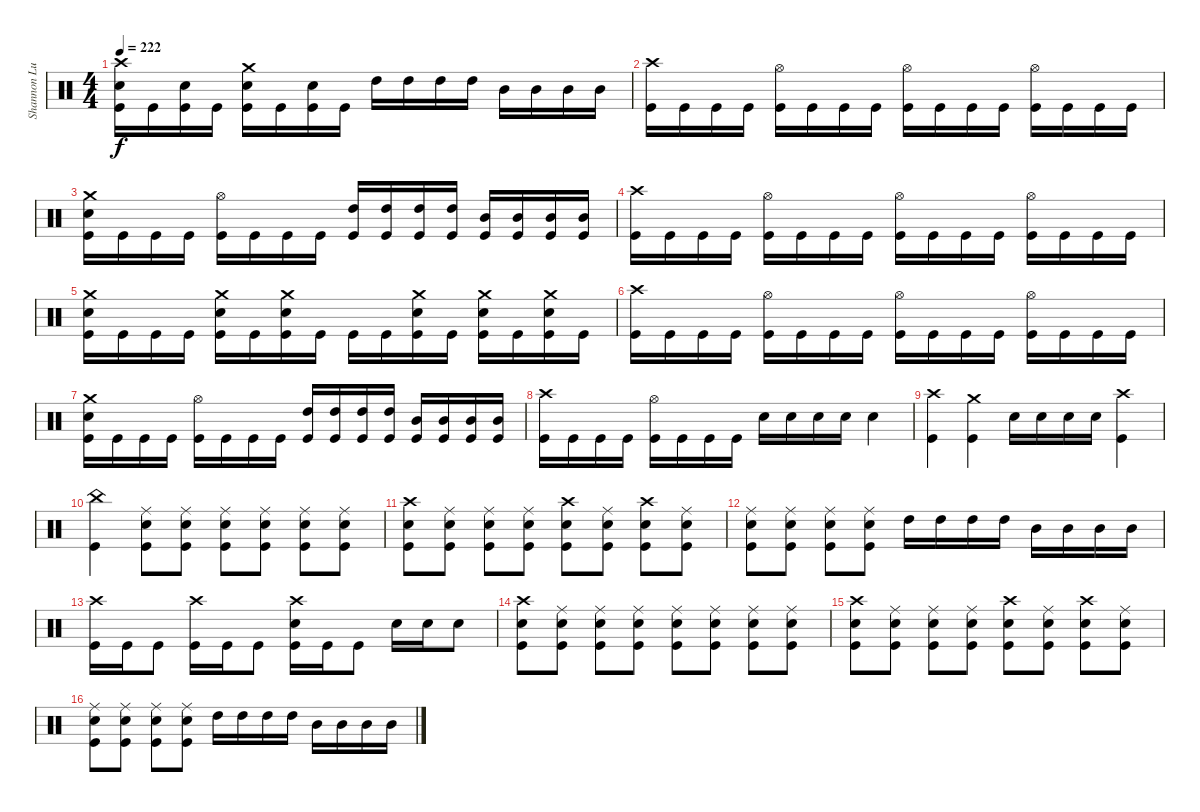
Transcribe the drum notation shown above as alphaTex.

\track ("Shannon Lucas" "Shannon Lu") {instrument percussion}
\staff {score}
\articulation defaults
\ts (4 4)
\tempo 222
\clef neutral
\ks c
("Crash high (hit)" "Snare (hit) 2" "Kick (hit)").16{dy f} "Kick (hit)".16 ("Snare (hit) 2" "Kick (hit)").16 "Kick (hit)".16 ("Crash medium (hit)" "Snare (hit) 2" "Kick (hit)").16 "Kick (hit)".16 ("Snare (hit) 2" "Kick (hit)").16 "Kick (hit)".16 "High Tom (hit)".16 "High Tom (hit)".16 "High Tom (hit)".16 "High Tom (hit)".16 "Mid Tom (hit)".16 "Mid Tom (hit)".16 "Mid Tom (hit)".16 "Mid Tom (hit)".16 |
("Crash high (hit)" "Kick (hit)").16 "Kick (hit)".16 "Kick (hit)".16 "Kick (hit)".16 ("Hi-Hat (open)" "Kick (hit)").16 "Kick (hit)".16 "Kick (hit)".16 "Kick (hit)".16 ("Hi-Hat (open)" "Kick (hit)").16 "Kick (hit)".16 "Kick (hit)".16 "Kick (hit)".16 ("Hi-Hat (open)" "Kick (hit)").16 "Kick (hit)".16 "Kick (hit)".16 "Kick (hit)".16 |
("Crash medium (hit)" "Snare (hit) 2" "Kick (hit)").16 "Kick (hit)".16 "Kick (hit)".16 "Kick (hit)".16 ("Hi-Hat (open)" "Kick (hit)").16 "Kick (hit)".16 "Kick (hit)".16 "Kick (hit)".16 ("High Tom (hit)" "Kick (hit)").16 ("High Tom (hit)" "Kick (hit)").16 ("High Tom (hit)" "Kick (hit)").16 ("High Tom (hit)" "Kick (hit)").16 ("Mid Tom (hit)" "Kick (hit)").16 ("Mid Tom (hit)" "Kick (hit)").16 ("Mid Tom (hit)" "Kick (hit)").16 ("Mid Tom (hit)" "Kick (hit)").16 |
("Crash high (hit)" "Kick (hit)").16 "Kick (hit)".16 "Kick (hit)".16 "Kick (hit)".16 ("Hi-Hat (open)" "Kick (hit)").16 "Kick (hit)".16 "Kick (hit)".16 "Kick (hit)".16 ("Hi-Hat (open)" "Kick (hit)").16 "Kick (hit)".16 "Kick (hit)".16 "Kick (hit)".16 ("Hi-Hat (open)" "Kick (hit)").16 "Kick (hit)".16 "Kick (hit)".16 "Kick (hit)".16 |
("Crash medium (hit)" "Snare (hit) 2" "Kick (hit)").16 "Kick (hit)".16 "Kick (hit)".16 "Kick (hit)".16 ("Crash medium (hit)" "Snare (hit) 2" "Kick (hit)").16 "Kick (hit)".16 ("Crash medium (hit)" "Snare (hit) 2" "Kick (hit)").16 "Kick (hit)".16 "Kick (hit)".16 "Kick (hit)".16 ("Crash medium (hit)" "Snare (hit) 2" "Kick (hit)").16 "Kick (hit)".16 ("Crash medium (hit)" "Snare (hit) 2" "Kick (hit)").16 "Kick (hit)".16 ("Crash medium (hit)" "Snare (hit) 2" "Kick (hit)").16 "Kick (hit)".16 |
("Crash high (hit)" "Kick (hit)").16 "Kick (hit)".16 "Kick (hit)".16 "Kick (hit)".16 ("Hi-Hat (open)" "Kick (hit)").16 "Kick (hit)".16 "Kick (hit)".16 "Kick (hit)".16 ("Hi-Hat (open)" "Kick (hit)").16 "Kick (hit)".16 "Kick (hit)".16 "Kick (hit)".16 ("Hi-Hat (open)" "Kick (hit)").16 "Kick (hit)".16 "Kick (hit)".16 "Kick (hit)".16 |
("Crash medium (hit)" "Snare (hit) 2" "Kick (hit)").16 "Kick (hit)".16 "Kick (hit)".16 "Kick (hit)".16 ("Hi-Hat (open)" "Kick (hit)").16 "Kick (hit)".16 "Kick (hit)".16 "Kick (hit)".16 ("High Tom (hit)" "Kick (hit)").16 ("High Tom (hit)" "Kick (hit)").16 ("High Tom (hit)" "Kick (hit)").16 ("High Tom (hit)" "Kick (hit)").16 ("Mid Tom (hit)" "Kick (hit)").16 ("Mid Tom (hit)" "Kick (hit)").16 ("Mid Tom (hit)" "Kick (hit)").16 ("Mid Tom (hit)" "Kick (hit)").16 |
("Crash high (hit)" "Kick (hit)").16 "Kick (hit)".16 "Kick (hit)".16 "Kick (hit)".16 ("Hi-Hat (open)" "Kick (hit)").16 "Kick (hit)".16 "Kick (hit)".16 "Kick (hit)".16 "Snare (hit) 2".16 "Snare (hit) 2".16 "Snare (hit) 2".16 "Snare (hit) 2".16 "Snare (hit) 2".4 |
("Crash high (hit)" "Kick (hit)").4 ("Crash medium (hit)" "Kick (hit)").4 "Snare (hit) 2".16 "Snare (hit) 2".16 "Snare (hit) 2".16 "Snare (hit) 2".16 ("Crash high (hit)" "Kick (hit)").4 |
("China (hit)" "Kick (hit)").4 ("Ride (middle)" "Snare (hit) 2" "Kick (hit)").8 ("Ride (middle)" "Snare (hit) 2" "Kick (hit)").8 ("Ride (middle)" "Snare (hit) 2" "Kick (hit)").8 ("Ride (middle)" "Snare (hit) 2" "Kick (hit)").8 ("Ride (middle)" "Snare (hit) 2" "Kick (hit)").8 ("Ride (middle)" "Snare (hit) 2" "Kick (hit)").8 |
("Crash high (hit)" "Snare (hit) 2" "Kick (hit)").8 ("Ride (middle)" "Snare (hit) 2" "Kick (hit)").8 ("Ride (middle)" "Snare (hit) 2" "Kick (hit)").8 ("Ride (middle)" "Snare (hit) 2" "Kick (hit)").8 ("Crash high (hit)" "Snare (hit) 2" "Kick (hit)").8 ("Ride (middle)" "Snare (hit) 2" "Kick (hit)").8 ("Crash high (hit)" "Snare (hit) 2" "Kick (hit)").8 ("Ride (middle)" "Snare (hit) 2" "Kick (hit)").8 |
("Ride (middle)" "Snare (hit) 2" "Kick (hit)").8 ("Ride (middle)" "Snare (hit) 2" "Kick (hit)").8 ("Ride (middle)" "Snare (hit) 2" "Kick (hit)").8 ("Ride (middle)" "Snare (hit) 2" "Kick (hit)").8 "High Tom (hit)".16 "High Tom (hit)".16 "High Tom (hit)".16 "High Tom (hit)".16 "Mid Tom (hit)".16 "Mid Tom (hit)".16 "Mid Tom (hit)".16 "Mid Tom (hit)".16 |
("Crash high (hit)" "Kick (hit)").16 "Kick (hit)".16 "Kick (hit)".8 ("Crash high (hit)" "Kick (hit)").16 "Kick (hit)".16 "Kick (hit)".8 ("Crash high (hit)" "Snare (hit) 2" "Kick (hit)").16 "Kick (hit)".16 "Kick (hit)".8 "Snare (hit) 2".16 "Snare (hit) 2".16 "Snare (hit) 2".8 |
("Crash high (hit)" "Snare (hit) 2" "Kick (hit)").8 ("Ride (middle)" "Snare (hit) 2" "Kick (hit)").8 ("Ride (middle)" "Snare (hit) 2" "Kick (hit)").8 ("Ride (middle)" "Snare (hit) 2" "Kick (hit)").8 ("Ride (middle)" "Snare (hit) 2" "Kick (hit)").8 ("Ride (middle)" "Snare (hit) 2" "Kick (hit)").8 ("Ride (middle)" "Snare (hit) 2" "Kick (hit)").8 ("Ride (middle)" "Snare (hit) 2" "Kick (hit)").8 |
("Crash high (hit)" "Snare (hit) 2" "Kick (hit)").8 ("Ride (middle)" "Snare (hit) 2" "Kick (hit)").8 ("Ride (middle)" "Snare (hit) 2" "Kick (hit)").8 ("Ride (middle)" "Snare (hit) 2" "Kick (hit)").8 ("Crash high (hit)" "Snare (hit) 2" "Kick (hit)").8 ("Ride (middle)" "Snare (hit) 2" "Kick (hit)").8 ("Crash high (hit)" "Snare (hit) 2" "Kick (hit)").8 ("Ride (middle)" "Snare (hit) 2" "Kick (hit)").8 |
("Ride (middle)" "Snare (hit) 2" "Kick (hit)").8 ("Ride (middle)" "Snare (hit) 2" "Kick (hit)").8 ("Ride (middle)" "Snare (hit) 2" "Kick (hit)").8 ("Ride (middle)" "Snare (hit) 2" "Kick (hit)").8 "High Tom (hit)".16 "High Tom (hit)".16 "High Tom (hit)".16 "High Tom (hit)".16 "Mid Tom (hit)".16 "Mid Tom (hit)".16 "Mid Tom (hit)".16 "Mid Tom (hit)".16
